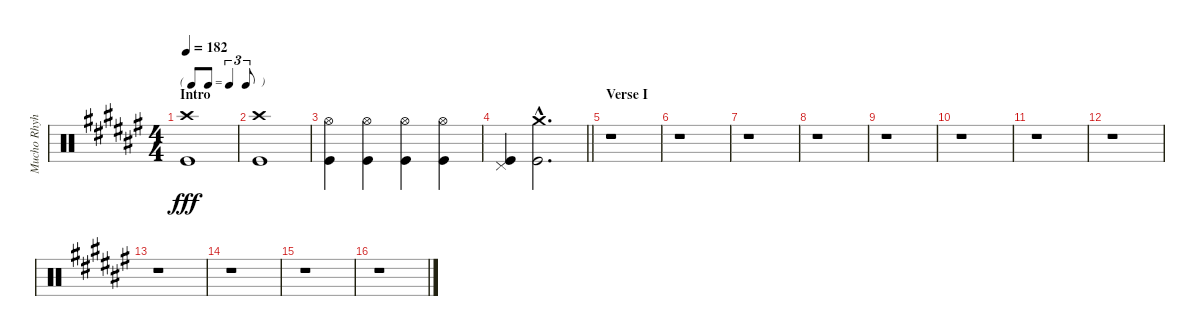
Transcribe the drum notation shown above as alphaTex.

\track ("Mucho Rhyhtm" "Mucho Rhyh") {instrument percussion}
\staff {score}
\articulation defaults
\ts (4 4)
\tf triplet8th
\section ("" "Intro")
\tempo 182
\clef neutral
\ks f#
("Crash high (hit)" "Kick (hit)").1{dy fff} |
("Crash high (hit)" "Kick (hit)").1 |
("Hi-Hat (open)" "Kick (hit)").4 ("Hi-Hat (open)" "Kick (hit)").4 ("Hi-Hat (open)" "Kick (hit)").4 ("Hi-Hat (open)" "Kick (hit)").4 |
\barLineRight lightlight
("Pedal Hi-Hat (hit)" "Kick (hit)").4 ("Crash medium (hit)"{hac} "Kick (hit)"{hac}).2{d} |
\section ("" "Verse I")
r.1 |
r.1 |
r.1 |
r.1 |
r.1 |
r.1 |
r.1 |
r.1 |
r.1 |
r.1 |
r.1 |
r.1
